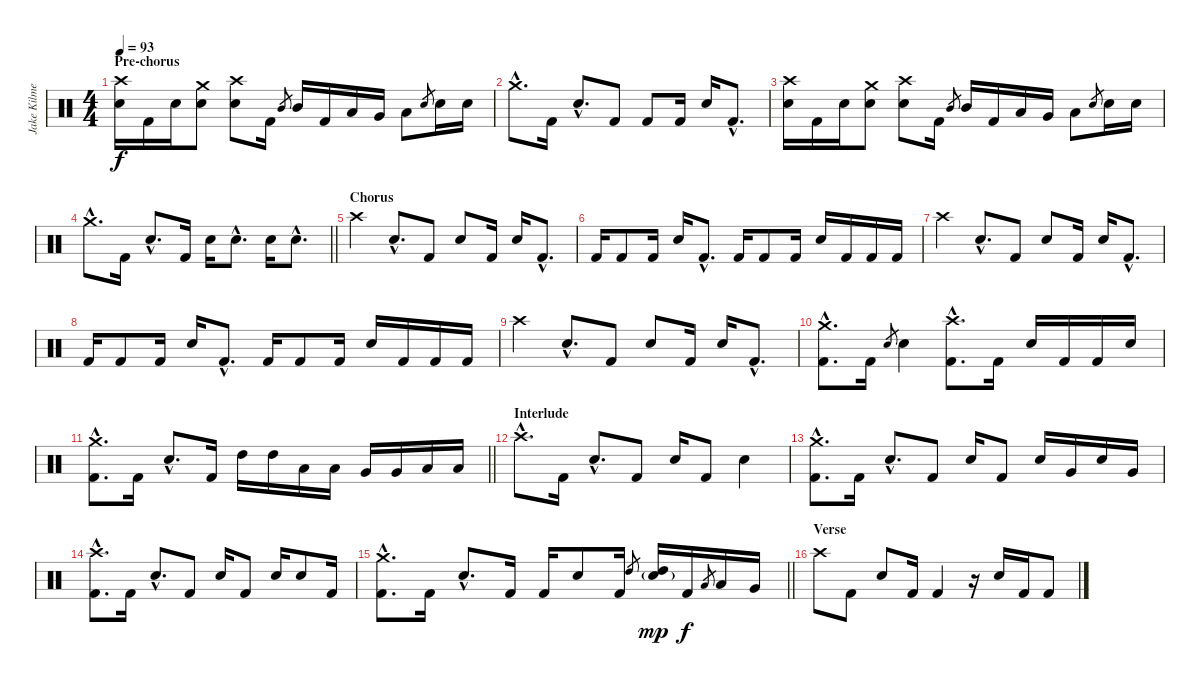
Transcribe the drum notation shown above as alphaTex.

\track ("Jake Kilmer (Drums)" "Jake Kilme") {instrument percussion}
\staff {score}
\articulation defaults
\ts (4 4)
\section ("" "Pre-chorus")
\tempo 93
\clef neutral
\ks c
("Crash high (hit)" "Electric Snare (hit)").16{dy f} "Kick (hit) 2".16 "Electric Snare (hit)".16 ("Crash medium (hit)" "Electric Snare (hit)").8 ("Crash high (hit)" "Electric Snare (hit)").8 "Kick (hit) 2".16 "Mid Tom (hit)".8{gr} "Mid Tom (hit)".16 "Kick (hit) 2".16 "Low Tom (hit)".16 "Very Low Tom (hit)".16 "Low Floor Tom (hit)".8 "Electric Snare (hit)".8{gr} "Electric Snare (hit)".16 "Electric Snare (hit)".16 |
"Crash medium (hit)"{hac}.8{d} "Kick (hit) 2".16 "Electric Snare (hit)"{hac}.8{d} "Kick (hit) 2".8 "Kick (hit) 2".8 "Kick (hit) 2".16 "Electric Snare (hit)".16 "Kick (hit) 2"{hac}.8{d} |
("Crash high (hit)" "Electric Snare (hit)").16 "Kick (hit) 2".16 "Electric Snare (hit)".16 ("Crash medium (hit)" "Electric Snare (hit)").8 ("Crash high (hit)" "Electric Snare (hit)").8 "Kick (hit) 2".16 "Mid Tom (hit)".8{gr} "Mid Tom (hit)".16 "Kick (hit) 2".16 "Low Tom (hit)".16 "Very Low Tom (hit)".16 "Low Floor Tom (hit)".8 "Electric Snare (hit)".8{gr} "Electric Snare (hit)".16 "Electric Snare (hit)".16 |
\barLineRight lightlight "Crash medium (hit)"{hac}.8{d} "Kick (hit) 2".16 "Electric Snare (hit)"{hac}.8{d} "Kick (hit) 2".16 "Electric Snare (hit)".16 "Electric Snare (hit)"{hac}.8{d} "Electric Snare (hit)".16 "Electric Snare (hit)"{hac}.8{d}
|
\section ("" "Chorus")
"Crash high (hit)".4 "Electric Snare (hit)"{hac}.8{d} "Kick (hit) 2".8 "Electric Snare (hit)".8 "Kick (hit) 2".16 "Electric Snare (hit)".16 "Kick (hit) 2"{hac}.8{d} |
"Kick (hit) 2".16 "Kick (hit) 2".8 "Kick (hit) 2".16 "Electric Snare (hit)".16 "Kick (hit) 2"{hac}.8{d} "Kick (hit) 2".16 "Kick (hit) 2".8 "Kick (hit) 2".16 "Electric Snare (hit)".16 "Kick (hit) 2".16 "Kick (hit) 2".16 "Kick (hit) 2".16 |
"Crash high (hit)".4 "Electric Snare (hit)"{hac}.8{d} "Kick (hit) 2".8 "Electric Snare (hit)".8 "Kick (hit) 2".16 "Electric Snare (hit)".16 "Kick (hit) 2"{hac}.8{d} |
"Kick (hit) 2".16 "Kick (hit) 2".8 "Kick (hit) 2".16 "Electric Snare (hit)".16 "Kick (hit) 2"{hac}.8{d} "Kick (hit) 2".16 "Kick (hit) 2".8 "Kick (hit) 2".16 "Electric Snare (hit)".16 "Kick (hit) 2".16 "Kick (hit) 2".16 "Kick (hit) 2".16 |
"Crash high (hit)".4 "Electric Snare (hit)"{hac}.8{d} "Kick (hit) 2".8 "Electric Snare (hit)".8 "Kick (hit) 2".16 "Electric Snare (hit)".16 "Kick (hit) 2"{hac}.8{d} |
("Crash medium (hit)"{hac} "Kick (hit) 2"{hac}).8{d} "Kick (hit) 2".16 "Electric Snare (hit)".8{gr} "Electric Snare (hit)".4 ("Crash high (hit)"{hac} "Kick (hit) 2"{hac}).8{d} "Kick (hit) 2".16 "Electric Snare (hit)".16 "Kick (hit) 2".16 "Kick (hit) 2".16 "Electric Snare (hit)".16 |
\barLineRight lightlight
("Crash medium (hit)"{hac} "Kick (hit) 2"{hac}).8{d} "Kick (hit) 2".16 "Electric Snare (hit)"{hac}.8{d} "Kick (hit) 2".16 "High Tom (hit)".16 "High Tom (hit)".16 "Low Tom (hit)".16 "Low Tom (hit)".16 "Very Low Tom (hit)".16 "Very Low Tom (hit)".16 "Low Floor Tom (hit)".16 "Low Floor Tom (hit)".16 |
\section ("" "Interlude")
"Crash high (hit)"{hac}.8{d} "Kick (hit) 2".16 "Electric Snare (hit)"{hac}.8{d} "Kick (hit) 2".8 "Electric Snare (hit)".16 "Kick (hit) 2".8 "Electric Snare (hit)".4 |
("Crash medium (hit)"{hac} "Kick (hit) 2"{hac}).8{d} "Kick (hit) 2".16 "Electric Snare (hit)"{hac}.8{d} "Kick (hit) 2".8 "Electric Snare (hit)".16 "Kick (hit) 2".8 "Electric Snare (hit)".16 "Very Low Tom (hit)".16 "Electric Snare (hit)".16 "Very Low Tom (hit)".16 |
("Crash high (hit)"{hac} "Kick (hit) 2"{hac}).8{d} "Kick (hit) 2".16 "Electric Snare (hit)"{hac}.8{d} "Kick (hit) 2".8 "Electric Snare (hit)".16 "Kick (hit) 2".8 "Electric Snare (hit)".16 "Electric Snare (hit)".8 "Kick (hit) 2".16 |
\barLineRight lightlight
("Crash medium (hit)"{hac} "Kick (hit) 2"{hac}).8{d} "Kick (hit) 2".16 "Electric Snare (hit)"{hac}.8{d} "Kick (hit) 2".16 "Kick (hit) 2".16 "Electric Snare (hit)".8 "Kick (hit) 2".16 "High Tom (hit)".8{gr} ("Electric Snare (hit)"{g} "High Tom (hit)").16{dy mp} "Kick (hit) 2".16{dy f} "Low Tom (hit)".8{gr} "Low Tom (hit)".16 "Very Low Tom (hit)".16 |
\section ("" "Verse")
"Crash high (hit)".8 "Kick (hit) 2".8 "Electric Snare (hit)".8 "Kick (hit) 2".16 "Kick (hit) 2".4 r.16 "Electric Snare (hit)".16 "Kick (hit) 2".16 "Kick (hit) 2".8
